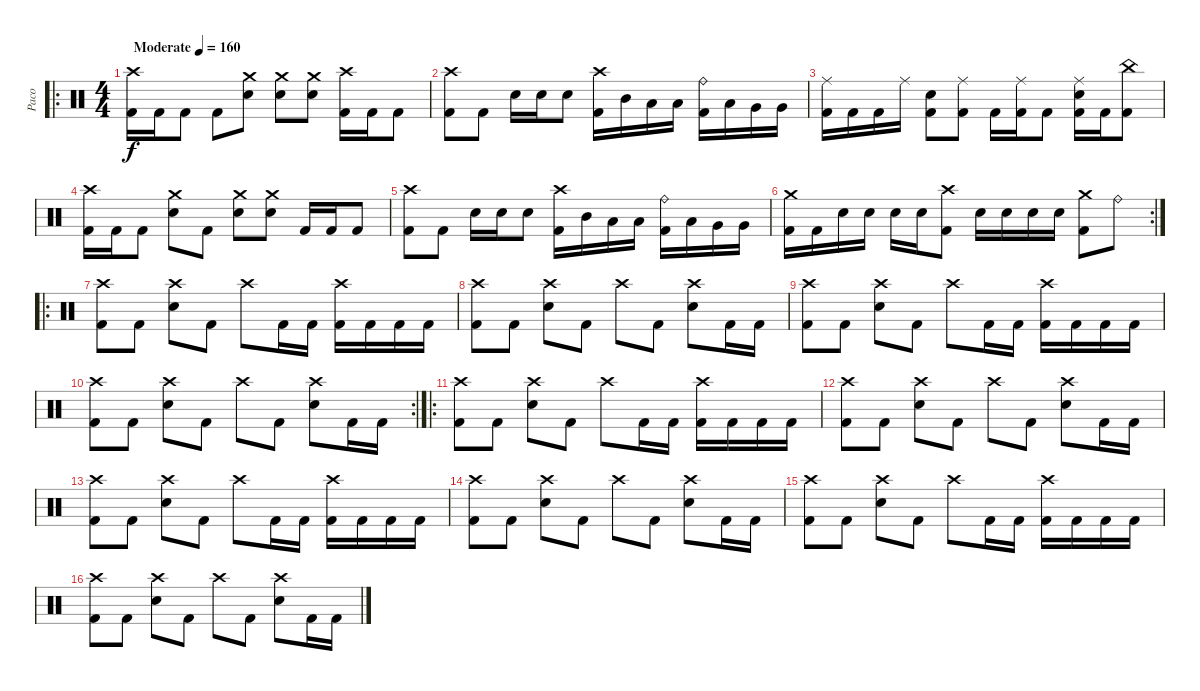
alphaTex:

\track ("Paco" "Paco") {instrument percussion}
\staff {score}
\articulation defaults
\ro
\ts (4 4)
\tempo (160 "Moderate")
\clef neutral
\ks c
("Crash high (hit)" "Kick (hit) 2").16{dy f} "Kick (hit) 2".16 "Kick (hit) 2".8 "Kick (hit) 2".8 ("Crash medium (hit)" "Electric Snare (hit)").8 ("Crash medium (hit)" "Electric Snare (hit)").8 ("Crash medium (hit)" "Electric Snare (hit)").8 ("Crash high (hit)" "Kick (hit) 2").16 "Kick (hit) 2".16 "Kick (hit) 2".8 |
("Crash high (hit)" "Kick (hit) 2").8 "Kick (hit) 2".8 "Electric Snare (hit)".16 "Electric Snare (hit)".16 "Electric Snare (hit)".8 ("Crash high (hit)" "Kick (hit) 2").16 "Mid Tom (hit)".16 "Low Tom (hit)".16 "Low Tom (hit)".16 ("Ride (bell)" "Kick (hit) 2").16 "Low Tom (hit)".16 "Very Low Tom (hit)".16 "Very Low Tom (hit)".16 |
("Ride (middle)" "Kick (hit) 2").16 "Kick (hit) 2".16 "Kick (hit) 2".16 "Ride (middle)".16 ("Electric Snare (hit)" "Kick (hit) 2").8 ("Ride (middle)" "Kick (hit) 2").8 "Kick (hit) 2".16 ("Ride (middle)" "Kick (hit) 2").16 "Kick (hit) 2".8 ("Ride (middle)" "Electric Snare (hit)" "Kick (hit) 2").16 "Kick (hit) 2".16 ("China (hit)" "Kick (hit) 2").8 |
("Crash high (hit)" "Kick (hit) 2").16 "Kick (hit) 2".16 "Kick (hit) 2".8 ("Crash medium (hit)" "Electric Snare (hit)").8 "Kick (hit) 2".8 ("Crash medium (hit)" "Electric Snare (hit)").8 ("Crash medium (hit)" "Electric Snare (hit)").8 "Kick (hit) 2".16 "Kick (hit) 2".16 "Kick (hit) 2".8 |
("Crash high (hit)" "Kick (hit) 2").8 "Kick (hit) 2".8 "Electric Snare (hit)".16 "Electric Snare (hit)".16 "Electric Snare (hit)".8 ("Crash high (hit)" "Kick (hit) 2").16 "Mid Tom (hit)".16 "Low Tom (hit)".16 "Low Tom (hit)".16 ("Ride (bell)" "Kick (hit) 2").16 "Low Tom (hit)".16 "Very Low Tom (hit)".16 "Very Low Tom (hit)".16 |
\rc 2
("Crash medium (hit)" "Kick (hit) 2").16 "Kick (hit) 2".16 "Electric Snare (hit)".16 "Electric Snare (hit)".16 "Electric Snare (hit)".16 "Electric Snare (hit)".16 ("Crash high (hit)" "Kick (hit) 2").8 "Electric Snare (hit)".16 "Electric Snare (hit)".16 "Electric Snare (hit)".16 "Electric Snare (hit)".16 ("Crash medium (hit)" "Kick (hit) 2").8 "Ride (bell)".8 |
\ro
("Crash high (hit)" "Kick (hit) 2").8 "Kick (hit) 2".8 ("Crash high (hit)" "Electric Snare (hit)").8 "Kick (hit) 2".8 "Crash high (hit)".8 "Kick (hit) 2".16 "Kick (hit) 2".16 ("Crash high (hit)" "Kick (hit) 2").16 "Kick (hit) 2".16 "Kick (hit) 2".16 "Kick (hit) 2".16 |
("Crash high (hit)" "Kick (hit) 2").8 "Kick (hit) 2".8 ("Crash high (hit)" "Electric Snare (hit)").8 "Kick (hit) 2".8 "Crash high (hit)".8 "Kick (hit) 2".8 ("Crash high (hit)" "Electric Snare (hit)").8 "Kick (hit) 2".16 "Kick (hit) 2".16 |
("Crash high (hit)" "Kick (hit) 2").8 "Kick (hit) 2".8 ("Crash high (hit)" "Electric Snare (hit)").8 "Kick (hit) 2".8 "Crash high (hit)".8 "Kick (hit) 2".16 "Kick (hit) 2".16 ("Crash high (hit)" "Kick (hit) 2").16 "Kick (hit) 2".16 "Kick (hit) 2".16 "Kick (hit) 2".16 |
\rc 2
("Crash high (hit)" "Kick (hit) 2").8 "Kick (hit) 2".8 ("Crash high (hit)" "Electric Snare (hit)").8 "Kick (hit) 2".8 "Crash high (hit)".8 "Kick (hit) 2".8 ("Crash high (hit)" "Electric Snare (hit)").8 "Kick (hit) 2".16 "Kick (hit) 2".16 |
\ro
("Crash high (hit)" "Kick (hit) 2").8 "Kick (hit) 2".8 ("Crash high (hit)" "Electric Snare (hit)").8 "Kick (hit) 2".8 "Crash high (hit)".8 "Kick (hit) 2".16 "Kick (hit) 2".16 ("Crash high (hit)" "Kick (hit) 2").16 "Kick (hit) 2".16 "Kick (hit) 2".16 "Kick (hit) 2".16 |
("Crash high (hit)" "Kick (hit) 2").8 "Kick (hit) 2".8 ("Crash high (hit)" "Electric Snare (hit)").8 "Kick (hit) 2".8 "Crash high (hit)".8 "Kick (hit) 2".8 ("Crash high (hit)" "Electric Snare (hit)").8 "Kick (hit) 2".16 "Kick (hit) 2".16 |
("Crash high (hit)" "Kick (hit) 2").8 "Kick (hit) 2".8 ("Crash high (hit)" "Electric Snare (hit)").8 "Kick (hit) 2".8 "Crash high (hit)".8 "Kick (hit) 2".16 "Kick (hit) 2".16 ("Crash high (hit)" "Kick (hit) 2").16 "Kick (hit) 2".16 "Kick (hit) 2".16 "Kick (hit) 2".16 |
("Crash high (hit)" "Kick (hit) 2").8 "Kick (hit) 2".8 ("Crash high (hit)" "Electric Snare (hit)").8 "Kick (hit) 2".8 "Crash high (hit)".8 "Kick (hit) 2".8 ("Crash high (hit)" "Electric Snare (hit)").8 "Kick (hit) 2".16 "Kick (hit) 2".16 |
("Crash high (hit)" "Kick (hit) 2").8 "Kick (hit) 2".8 ("Crash high (hit)" "Electric Snare (hit)").8 "Kick (hit) 2".8 "Crash high (hit)".8 "Kick (hit) 2".16 "Kick (hit) 2".16 ("Crash high (hit)" "Kick (hit) 2").16 "Kick (hit) 2".16 "Kick (hit) 2".16 "Kick (hit) 2".16 |
("Crash high (hit)" "Kick (hit) 2").8 "Kick (hit) 2".8 ("Crash high (hit)" "Electric Snare (hit)").8 "Kick (hit) 2".8 "Crash high (hit)".8 "Kick (hit) 2".8 ("Crash high (hit)" "Electric Snare (hit)").8 "Kick (hit) 2".16 "Kick (hit) 2".16
